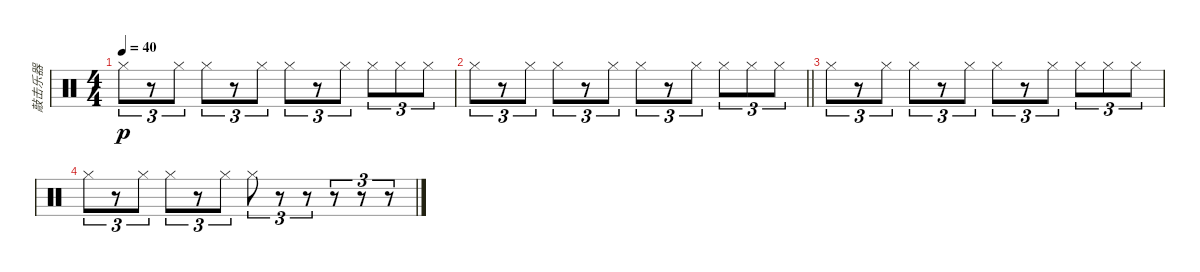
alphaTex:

\track ("敲击乐器" "敲击乐器") {instrument percussion}
\staff {score}
\articulation defaults
\ts (4 4)
\tempo 40
\clef neutral
\ks c "Hi-Hat (closed)".8{tu (3 2) dy p}
r.8{tu (3 2)} "Hi-Hat (closed)".8{tu (3 2)} "Hi-Hat (closed)".8{tu (3 2)} r.8{tu (3 2)} "Hi-Hat (closed)".8{tu (3 2)} "Hi-Hat (closed)".8{tu (3 2)} r.8{tu (3 2)} "Hi-Hat (closed)".8{tu (3 2)} "Hi-Hat (closed)".8{tu (3 2)} "Hi-Hat (closed)".8{tu (3 2)} "Hi-Hat (closed)".8{tu (3 2)} |
\barLineRight lightlight "Hi-Hat (closed)".8{tu (3 2)}
r.8{tu (3 2)} "Hi-Hat (closed)".8{tu (3 2)} "Hi-Hat (closed)".8{tu (3 2)} r.8{tu (3 2)} "Hi-Hat (closed)".8{tu (3 2)} "Hi-Hat (closed)".8{tu (3 2)} r.8{tu (3 2)} "Hi-Hat (closed)".8{tu (3 2)} "Hi-Hat (closed)".8{tu (3 2)} "Hi-Hat (closed)".8{tu (3 2)} "Hi-Hat (closed)".8{tu (3 2)} |
"Hi-Hat (closed)".8{tu (3 2)} r.8{tu (3 2)} "Hi-Hat (closed)".8{tu (3 2)} "Hi-Hat (closed)".8{tu (3 2)} r.8{tu (3 2)} "Hi-Hat (closed)".8{tu (3 2)} "Hi-Hat (closed)".8{tu (3 2)} r.8{tu (3 2)} "Hi-Hat (closed)".8{tu (3 2)} "Hi-Hat (closed)".8{tu (3 2)} "Hi-Hat (closed)".8{tu (3 2)} "Hi-Hat (closed)".8{tu (3 2)} |
"Hi-Hat (closed)".8{tu (3 2)} r.8{tu (3 2)} "Hi-Hat (closed)".8{tu (3 2)} "Hi-Hat (closed)".8{tu (3 2)} r.8{tu (3 2)} "Hi-Hat (closed)".8{tu (3 2)} "Hi-Hat (closed)".8{tu (3 2)} r.8{tu (3 2)} r.8{tu (3 2)} r.8{tu (3 2)} r.8{tu (3 2)} r.8{tu (3 2)}
